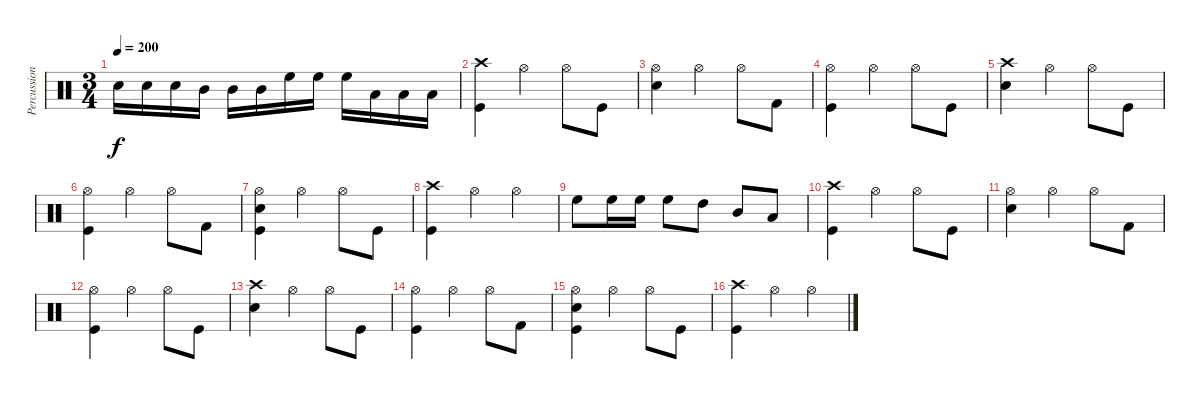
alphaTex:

\track ("Percussion" "Percussion") {instrument percussion}
\staff {score}
\articulation defaults
\ts (3 4)
\tempo 200
\clef neutral
\ks c "Snare (hit) 2".16{dy f} "Snare (hit) 2".16 "Snare (hit) 2".16 "Mid Tom (hit)".16 "Mid Tom (hit)".16 "Mid Tom (hit)".16 "High Floor Tom (hit)".16 "High Floor Tom (hit)".16 "High Floor Tom (hit)".16 "Low Tom (hit)".16 "Low Tom (hit)".16 "Low Tom (hit)".16
|
("Crash high (hit)" "Kick (hit)").4 "Hi-Hat (open)".4 "Hi-Hat (open)".8 "Kick (hit)".8 |
("Hi-Hat (open)" "Snare (hit) 2").4 "Hi-Hat (open)".4 "Hi-Hat (open)".8 "Kick (hit) 2".8 |
("Hi-Hat (open)" "Kick (hit)").4 "Hi-Hat (open)".4 "Hi-Hat (open)".8 "Kick (hit)".8 |
("Crash high (hit)" "Snare (hit) 2").4 "Hi-Hat (open)".4 "Hi-Hat (open)".8 "Kick (hit)".8 |
("Hi-Hat (open)" "Kick (hit)").4 "Hi-Hat (open)".4 "Hi-Hat (open)".8 "Kick (hit) 2".8 |
("Hi-Hat (open)" "Snare (hit) 2" "Kick (hit)").4 "Hi-Hat (open)".4 "Hi-Hat (open)".8 "Kick (hit)".8 |
("Crash high (hit)" "Kick (hit)").4 "Hi-Hat (open)".4 "Hi-Hat (open)".4 |
"High Floor Tom (hit)".8 "High Floor Tom (hit)".16 "High Floor Tom (hit)".16 "High Floor Tom (hit)".8 "High Tom (hit)".8 "Mid Tom (hit)".8 "Low Tom (hit)".8 |
("Crash high (hit)" "Kick (hit)").4 "Hi-Hat (open)".4 "Hi-Hat (open)".8 "Kick (hit)".8 |
("Hi-Hat (open)" "Snare (hit) 2").4 "Hi-Hat (open)".4 "Hi-Hat (open)".8 "Kick (hit) 2".8 |
("Hi-Hat (open)" "Kick (hit)").4 "Hi-Hat (open)".4 "Hi-Hat (open)".8 "Kick (hit)".8 |
("Crash high (hit)" "Snare (hit) 2").4 "Hi-Hat (open)".4 "Hi-Hat (open)".8 "Kick (hit)".8 |
("Hi-Hat (open)" "Kick (hit)").4 "Hi-Hat (open)".4 "Hi-Hat (open)".8 "Kick (hit) 2".8 |
("Hi-Hat (open)" "Snare (hit) 2" "Kick (hit)").4 "Hi-Hat (open)".4 "Hi-Hat (open)".8 "Kick (hit)".8 |
("Crash high (hit)" "Kick (hit)").4 "Hi-Hat (open)".4 "Hi-Hat (open)".4
